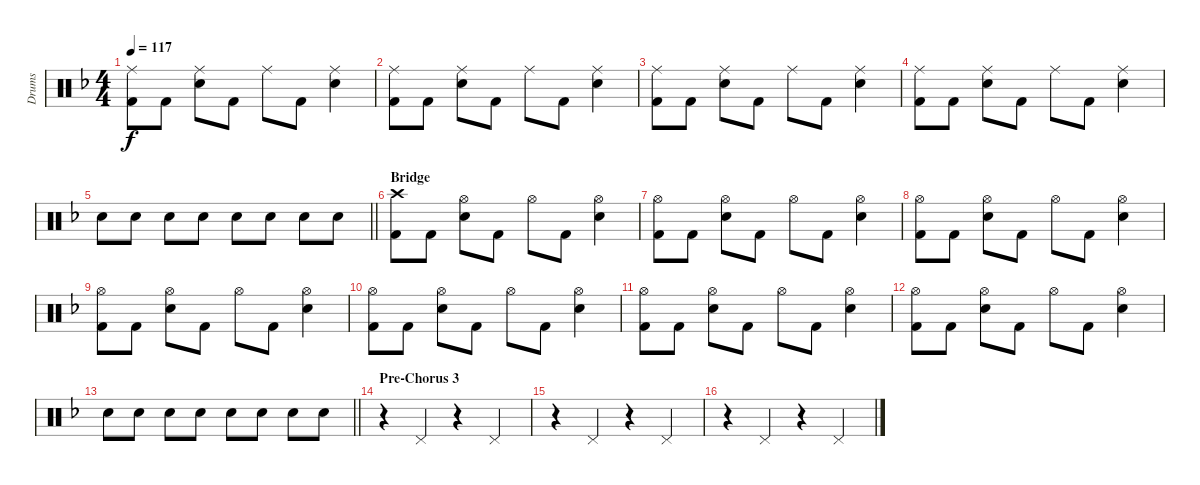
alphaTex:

\track ("Drums" "Drums") {instrument percussion}
\staff {score}
\articulation defaults
\ts (4 4)
\tempo 117
\clef neutral
\ks dminor
("Kick (hit) 2" "Ride (middle)").8{dy f} "Kick (hit) 2".8 ("Snare (hit) 2" "Ride (middle)").8 "Kick (hit) 2".8 "Ride (middle)".8 "Kick (hit) 2".8 ("Snare (hit) 2" "Ride (middle)").4 |
("Kick (hit) 2" "Ride (middle)").8 "Kick (hit) 2".8 ("Snare (hit) 2" "Ride (middle)").8 "Kick (hit) 2".8 "Ride (middle)".8 "Kick (hit) 2".8 ("Snare (hit) 2" "Ride (middle)").4 |
("Kick (hit) 2" "Ride (middle)").8 "Kick (hit) 2".8 ("Snare (hit) 2" "Ride (middle)").8 "Kick (hit) 2".8 "Ride (middle)".8 "Kick (hit) 2".8 ("Snare (hit) 2" "Ride (middle)").4 |
("Kick (hit) 2" "Ride (middle)").8 "Kick (hit) 2".8 ("Snare (hit) 2" "Ride (middle)").8 "Kick (hit) 2".8 "Ride (middle)".8 "Kick (hit) 2".8 ("Snare (hit) 2" "Ride (middle)").4 |
\barLineRight lightlight "Snare (hit) 2".8 "Snare (hit) 2".8 "Snare (hit) 2".8 "Snare (hit) 2".8 "Snare (hit) 2".8 "Snare (hit) 2".8 "Snare (hit) 2".8 "Snare (hit) 2".8
|
\section ("" "Bridge")
("Kick (hit) 2" "Crash high (hit)").8 "Kick (hit) 2".8 ("Hi-Hat (open)" "Snare (hit) 2").8 "Kick (hit) 2".8 "Hi-Hat (open)".8 "Kick (hit) 2".8 ("Hi-Hat (open)" "Snare (hit) 2").4 |
("Hi-Hat (open)" "Kick (hit) 2").8 "Kick (hit) 2".8 ("Hi-Hat (open)" "Snare (hit) 2").8 "Kick (hit) 2".8 "Hi-Hat (open)".8 "Kick (hit) 2".8 ("Hi-Hat (open)" "Snare (hit) 2").4 |
("Hi-Hat (open)" "Kick (hit) 2").8 "Kick (hit) 2".8 ("Hi-Hat (open)" "Snare (hit) 2").8 "Kick (hit) 2".8 "Hi-Hat (open)".8 "Kick (hit) 2".8 ("Hi-Hat (open)" "Snare (hit) 2").4 |
("Hi-Hat (open)" "Kick (hit) 2").8 "Kick (hit) 2".8 ("Hi-Hat (open)" "Snare (hit) 2").8 "Kick (hit) 2".8 "Hi-Hat (open)".8 "Kick (hit) 2".8 ("Hi-Hat (open)" "Snare (hit) 2").4 |
("Hi-Hat (open)" "Kick (hit) 2").8 "Kick (hit) 2".8 ("Hi-Hat (open)" "Snare (hit) 2").8 "Kick (hit) 2".8 "Hi-Hat (open)".8 "Kick (hit) 2".8 ("Hi-Hat (open)" "Snare (hit) 2").4 |
("Hi-Hat (open)" "Kick (hit) 2").8 "Kick (hit) 2".8 ("Hi-Hat (open)" "Snare (hit) 2").8 "Kick (hit) 2".8 "Hi-Hat (open)".8 "Kick (hit) 2".8 ("Hi-Hat (open)" "Snare (hit) 2").4 |
("Hi-Hat (open)" "Kick (hit) 2").8 "Kick (hit) 2".8 ("Hi-Hat (open)" "Snare (hit) 2").8 "Kick (hit) 2".8 "Hi-Hat (open)".8 "Kick (hit) 2".8 ("Hi-Hat (open)" "Snare (hit) 2").4 |
\barLineRight lightlight "Snare (hit) 2".8 "Snare (hit) 2".8 "Snare (hit) 2".8 "Snare (hit) 2".8 "Snare (hit) 2".8 "Snare (hit) 2".8 "Snare (hit) 2".8 "Snare (hit) 2".8
|
\section ("" "Pre-Chorus 3")
r.4 "Pedal Hi-Hat (hit)".4 r.4 "Pedal Hi-Hat (hit)".4 |
r.4 "Pedal Hi-Hat (hit)".4 r.4 "Pedal Hi-Hat (hit)".4 |
r.4 "Pedal Hi-Hat (hit)".4 r.4 "Pedal Hi-Hat (hit)".4
